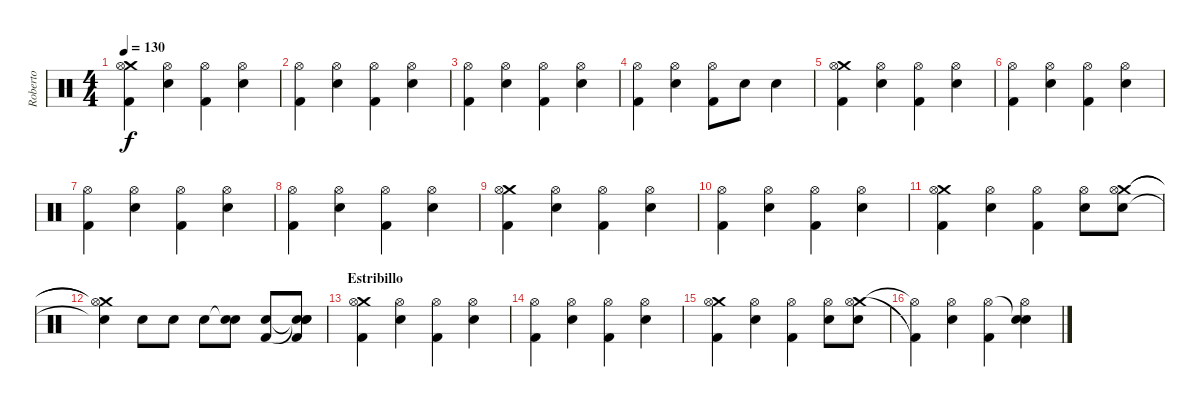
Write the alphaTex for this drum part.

\track ("Roberto" "Roberto") {instrument percussion}
\staff {score}
\articulation defaults
\ts (4 4)
\tempo 130
\clef neutral
\ks c
("Crash medium (hit)" "Hi-Hat (open)" "Kick (hit) 2").4{dy f} ("Hi-Hat (open)" "Snare (hit) 2").4 ("Hi-Hat (open)" "Kick (hit) 2").4 ("Hi-Hat (open)" "Snare (hit) 2").4 |
("Hi-Hat (open)" "Kick (hit) 2").4 ("Hi-Hat (open)" "Snare (hit) 2").4 ("Hi-Hat (open)" "Kick (hit) 2").4 ("Hi-Hat (open)" "Snare (hit) 2").4 |
("Hi-Hat (open)" "Kick (hit) 2").4 ("Hi-Hat (open)" "Snare (hit) 2").4 ("Hi-Hat (open)" "Kick (hit) 2").4 ("Hi-Hat (open)" "Snare (hit) 2").4 |
("Hi-Hat (open)" "Kick (hit) 2").4 ("Hi-Hat (open)" "Snare (hit) 2").4 ("Hi-Hat (open)" "Kick (hit) 2").8 "Snare (hit) 2".8 "Snare (hit) 2".4 |
("Crash medium (hit)" "Hi-Hat (open)" "Kick (hit) 2").4 ("Hi-Hat (open)" "Snare (hit) 2").4 ("Hi-Hat (open)" "Kick (hit) 2").4 ("Hi-Hat (open)" "Snare (hit) 2").4 |
("Hi-Hat (open)" "Kick (hit) 2").4 ("Hi-Hat (open)" "Snare (hit) 2").4 ("Hi-Hat (open)" "Kick (hit) 2").4 ("Hi-Hat (open)" "Snare (hit) 2").4 |
("Hi-Hat (open)" "Kick (hit) 2").4 ("Hi-Hat (open)" "Snare (hit) 2").4 ("Hi-Hat (open)" "Kick (hit) 2").4 ("Hi-Hat (open)" "Snare (hit) 2").4 |
("Hi-Hat (open)" "Kick (hit) 2").4 ("Hi-Hat (open)" "Snare (hit) 2").4 ("Hi-Hat (open)" "Kick (hit) 2").4 ("Hi-Hat (open)" "Snare (hit) 2").4 |
("Crash medium (hit)" "Hi-Hat (open)" "Kick (hit) 2").4 ("Hi-Hat (open)" "Snare (hit) 2").4 ("Hi-Hat (open)" "Kick (hit) 2").4 ("Hi-Hat (open)" "Snare (hit) 2").4 |
("Hi-Hat (open)" "Kick (hit) 2").4 ("Hi-Hat (open)" "Snare (hit) 2").4 ("Hi-Hat (open)" "Kick (hit) 2").4 ("Hi-Hat (open)" "Snare (hit) 2").4 |
("Crash medium (hit)" "Hi-Hat (open)" "Kick (hit) 2").4 ("Hi-Hat (open)" "Snare (hit) 2").4 ("Hi-Hat (open)" "Kick (hit) 2").4 ("Hi-Hat (open)" "Snare (hit) 2").8 ("Crash medium (hit)" "Hi-Hat (open)" "Snare (hit) 2").8 |
("Crash medium (hit)"{t} "Hi-Hat (open)"{t} "Snare (hit)"{t}).4 "Snare (hit) 2".8 "Snare (hit) 2".8 "Snare (hit) 2".8 ("Snare (hit)"{t} "Snare (hit) 2").8 ("Kick (hit) 2" "Snare (hit) 2").8 ("Snare (hit)"{t} "Snare (hit)"{t} "Kick (hit) 2" "Snare (hit) 2").8 |
\section ("" "Estribillo")
("Crash medium (hit)" "Hi-Hat (open)" "Kick (hit) 2").4 ("Hi-Hat (open)" "Snare (hit) 2").4 ("Hi-Hat (open)" "Kick (hit) 2").4 ("Hi-Hat (open)" "Snare (hit) 2").4 |
("Hi-Hat (open)" "Kick (hit) 2").4 ("Hi-Hat (open)" "Snare (hit) 2").4 ("Hi-Hat (open)" "Kick (hit) 2").4 ("Hi-Hat (open)" "Snare (hit) 2").4 |
("Crash medium (hit)" "Hi-Hat (open)" "Kick (hit) 2").4 ("Hi-Hat (open)" "Snare (hit) 2").4 ("Hi-Hat (open)" "Kick (hit) 2").4 ("Hi-Hat (open)" "Snare (hit) 2").8 ("Crash medium (hit)" "Hi-Hat (open)" "Snare (hit) 2").8 |
("Hi-Hat (open)"{t} "Kick (hit) 2"{t}).4 ("Hi-Hat (open)" "Snare (hit) 2").4 ("Hi-Hat (open)" "Kick (hit) 2").4 ("Snare (hit)"{t} "Hi-Hat (open)" "Snare (hit) 2").4
